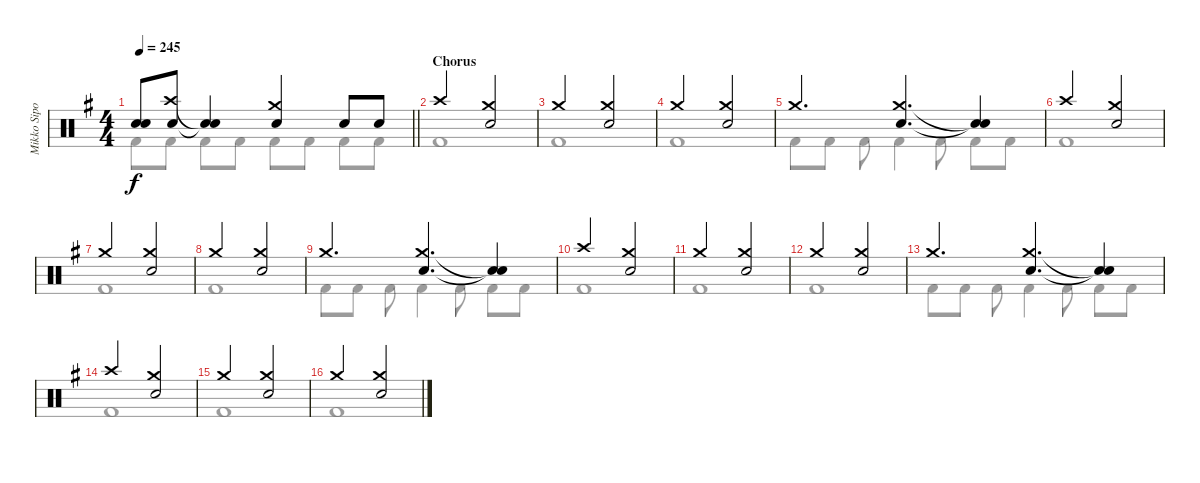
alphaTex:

\track ("Mikko Sipola (drums)" "Mikko Sipo") {instrument percussion}
\staff {score}
\articulation defaults
\voice
\ts (4 4)
\tempo 245
\clef neutral
\barLineRight lightlight
\ks eminor
("Snare (hit)"{t} "Snare (hit)"{t}).8{dy f} ("Crash high (hit)" "Snare (hit) 2").8 ("Snare (hit)"{t} "Snare (hit)"{t}).4 ("Crash medium (hit)" "Snare (hit) 2").4 "Snare (hit) 2".8 "Snare (hit) 2".8 |
\section ("" "Chorus")
"Crash high (hit)".2 ("Crash medium (hit)" "Electric Snare (hit)").2 |
"Crash medium (hit)".2 ("Crash medium (hit)" "Electric Snare (hit)").2 |
"Crash medium (hit)".2 ("Crash medium (hit)" "Electric Snare (hit)").2 |
"Crash medium (hit)".4{d} ("Crash medium (hit)" "Electric Snare (hit)").4{d} ("Snare (hit)"{t} "Snare (hit)"{t}).4 |
"Crash high (hit)".2 ("Crash medium (hit)" "Electric Snare (hit)").2 |
"Crash medium (hit)".2 ("Crash medium (hit)" "Electric Snare (hit)").2 |
"Crash medium (hit)".2 ("Crash medium (hit)" "Electric Snare (hit)").2 |
"Crash medium (hit)".4{d} ("Crash medium (hit)" "Electric Snare (hit)").4{d} ("Snare (hit)"{t} "Snare (hit)"{t}).4 |
"Crash high (hit)".2 ("Crash medium (hit)" "Electric Snare (hit)").2 |
"Crash medium (hit)".2 ("Crash medium (hit)" "Electric Snare (hit)").2 |
"Crash medium (hit)".2 ("Crash medium (hit)" "Electric Snare (hit)").2 |
"Crash medium (hit)".4{d} ("Crash medium (hit)" "Electric Snare (hit)").4{d} ("Snare (hit)"{t} "Snare (hit)"{t}).4 |
"Crash high (hit)".2 ("Crash medium (hit)" "Electric Snare (hit)").2 |
"Crash medium (hit)".2 ("Crash medium (hit)" "Electric Snare (hit)").2 |
"Crash medium (hit)".2 ("Crash medium (hit)" "Electric Snare (hit)").2
\voice
\clef neutral
\ottava regular
\simile none
\barLineRight lightlight
\ks eminor "Kick (hit) 2".8{dy f} "Kick (hit) 2".8 "Kick (hit) 2".8 "Kick (hit) 2".8 "Kick (hit) 2".8 "Kick (hit) 2".8 "Kick (hit) 2".8 "Kick (hit) 2".8
|
"Kick (hit) 2".1 |
"Kick (hit) 2".1 |
"Kick (hit) 2".1 |
"Kick (hit) 2".8 "Kick (hit) 2".8 "Kick (hit) 2".8 "Kick (hit) 2".4 "Kick (hit) 2".8 "Kick (hit) 2".8 "Kick (hit) 2".8 |
"Kick (hit) 2".1 |
"Kick (hit) 2".1 |
"Kick (hit) 2".1 |
"Kick (hit) 2".8 "Kick (hit) 2".8 "Kick (hit) 2".8 "Kick (hit) 2".4 "Kick (hit) 2".8 "Kick (hit) 2".8 "Kick (hit) 2".8 |
"Kick (hit) 2".1 |
"Kick (hit) 2".1 |
"Kick (hit) 2".1 |
"Kick (hit) 2".8 "Kick (hit) 2".8 "Kick (hit) 2".8 "Kick (hit) 2".4 "Kick (hit) 2".8 "Kick (hit) 2".8 "Kick (hit) 2".8 |
"Kick (hit) 2".1 |
"Kick (hit) 2".1 |
"Kick (hit) 2".1
